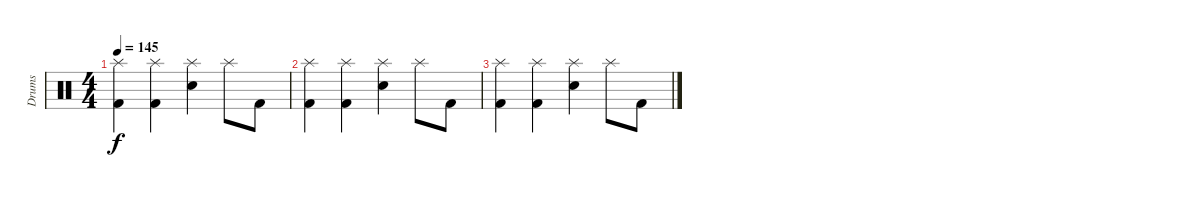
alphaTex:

\track ("Drums" "Drums") {instrument percussion}
\staff {score}
\articulation defaults
\ts (4 4)
\tempo 145
\clef neutral
\ks c
("Kick (hit) 2" "Splash (hit)").4{dy f} ("Kick (hit) 2" "Splash (hit)").4 ("Snare (hit) 2" "Splash (hit)").4 "Splash (hit)".8 "Kick (hit) 2".8 |
("Kick (hit) 2" "Splash (hit)").4 ("Kick (hit) 2" "Splash (hit)").4 ("Snare (hit) 2" "Splash (hit)").4 "Splash (hit)".8 "Kick (hit) 2".8 |
("Kick (hit) 2" "Splash (hit)").4 ("Kick (hit) 2" "Splash (hit)").4 ("Snare (hit) 2" "Splash (hit)").4 "Splash (hit)".8 "Kick (hit) 2".8
